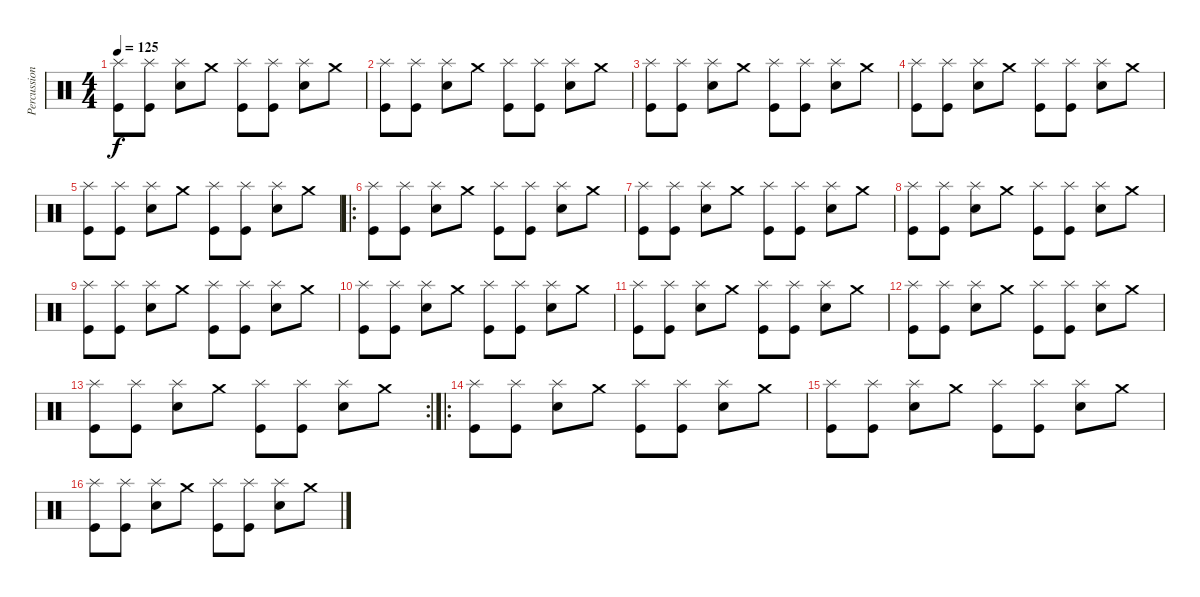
\track ("Percussions" "Percussion") {instrument percussion}
\staff {score}
\articulation defaults
\ts (4 4)
\tempo 125
\clef neutral
\ks c
("Kick (hit)" "Splash (hit)").8{dy f} ("Kick (hit)" "Splash (hit)").8 ("Electric Snare (hit)" "Splash (hit)").8 "Crash medium (hit)".8 ("Kick (hit)" "Splash (hit)").8 ("Kick (hit)" "Splash (hit)").8 ("Electric Snare (hit)" "Splash (hit)").8 "Crash medium (hit)".8 |
("Kick (hit)" "Splash (hit)").8 ("Kick (hit)" "Splash (hit)").8 ("Electric Snare (hit)" "Splash (hit)").8 "Crash medium (hit)".8 ("Kick (hit)" "Splash (hit)").8 ("Kick (hit)" "Splash (hit)").8 ("Electric Snare (hit)" "Splash (hit)").8 "Crash medium (hit)".8 |
("Kick (hit)" "Splash (hit)").8 ("Kick (hit)" "Splash (hit)").8 ("Electric Snare (hit)" "Splash (hit)").8 "Crash medium (hit)".8 ("Kick (hit)" "Splash (hit)").8 ("Kick (hit)" "Splash (hit)").8 ("Electric Snare (hit)" "Splash (hit)").8 "Crash medium (hit)".8 |
("Kick (hit)" "Splash (hit)").8 ("Kick (hit)" "Splash (hit)").8 ("Electric Snare (hit)" "Splash (hit)").8 "Crash medium (hit)".8 ("Kick (hit)" "Splash (hit)").8 ("Kick (hit)" "Splash (hit)").8 ("Electric Snare (hit)" "Splash (hit)").8 "Crash medium (hit)".8 |
("Kick (hit)" "Splash (hit)").8 ("Kick (hit)" "Splash (hit)").8 ("Electric Snare (hit)" "Splash (hit)").8 "Crash medium (hit)".8 ("Kick (hit)" "Splash (hit)").8 ("Kick (hit)" "Splash (hit)").8 ("Electric Snare (hit)" "Splash (hit)").8 "Crash medium (hit)".8 |
\ro
("Kick (hit)" "Splash (hit)").8 ("Kick (hit)" "Splash (hit)").8 ("Electric Snare (hit)" "Splash (hit)").8 "Crash medium (hit)".8 ("Kick (hit)" "Splash (hit)").8 ("Kick (hit)" "Splash (hit)").8 ("Electric Snare (hit)" "Splash (hit)").8 "Crash medium (hit)".8 |
("Kick (hit)" "Splash (hit)").8 ("Kick (hit)" "Splash (hit)").8 ("Electric Snare (hit)" "Splash (hit)").8 "Crash medium (hit)".8 ("Kick (hit)" "Splash (hit)").8 ("Kick (hit)" "Splash (hit)").8 ("Electric Snare (hit)" "Splash (hit)").8 "Crash medium (hit)".8 |
("Kick (hit)" "Splash (hit)").8 ("Kick (hit)" "Splash (hit)").8 ("Electric Snare (hit)" "Splash (hit)").8 "Crash medium (hit)".8 ("Kick (hit)" "Splash (hit)").8 ("Kick (hit)" "Splash (hit)").8 ("Electric Snare (hit)" "Splash (hit)").8 "Crash medium (hit)".8 |
("Kick (hit)" "Splash (hit)").8 ("Kick (hit)" "Splash (hit)").8 ("Electric Snare (hit)" "Splash (hit)").8 "Crash medium (hit)".8 ("Kick (hit)" "Splash (hit)").8 ("Kick (hit)" "Splash (hit)").8 ("Electric Snare (hit)" "Splash (hit)").8 "Crash medium (hit)".8 |
("Kick (hit)" "Splash (hit)").8 ("Kick (hit)" "Splash (hit)").8 ("Electric Snare (hit)" "Splash (hit)").8 "Crash medium (hit)".8 ("Kick (hit)" "Splash (hit)").8 ("Kick (hit)" "Splash (hit)").8 ("Electric Snare (hit)" "Splash (hit)").8 "Crash medium (hit)".8 |
("Kick (hit)" "Splash (hit)").8 ("Kick (hit)" "Splash (hit)").8 ("Electric Snare (hit)" "Splash (hit)").8 "Crash medium (hit)".8 ("Kick (hit)" "Splash (hit)").8 ("Kick (hit)" "Splash (hit)").8 ("Electric Snare (hit)" "Splash (hit)").8 "Crash medium (hit)".8 |
("Kick (hit)" "Splash (hit)").8 ("Kick (hit)" "Splash (hit)").8 ("Electric Snare (hit)" "Splash (hit)").8 "Crash medium (hit)".8 ("Kick (hit)" "Splash (hit)").8 ("Kick (hit)" "Splash (hit)").8 ("Electric Snare (hit)" "Splash (hit)").8 "Crash medium (hit)".8 |
\rc 2
("Kick (hit)" "Splash (hit)").8 ("Kick (hit)" "Splash (hit)").8 ("Electric Snare (hit)" "Splash (hit)").8 "Crash medium (hit)".8 ("Kick (hit)" "Splash (hit)").8 ("Kick (hit)" "Splash (hit)").8 ("Electric Snare (hit)" "Splash (hit)").8 "Crash medium (hit)".8 |
\ro
("Kick (hit)" "Splash (hit)").8 ("Kick (hit)" "Splash (hit)").8 ("Electric Snare (hit)" "Splash (hit)").8 "Crash medium (hit)".8 ("Kick (hit)" "Splash (hit)").8 ("Kick (hit)" "Splash (hit)").8 ("Electric Snare (hit)" "Splash (hit)").8 "Crash medium (hit)".8 |
("Kick (hit)" "Splash (hit)").8 ("Kick (hit)" "Splash (hit)").8 ("Electric Snare (hit)" "Splash (hit)").8 "Crash medium (hit)".8 ("Kick (hit)" "Splash (hit)").8 ("Kick (hit)" "Splash (hit)").8 ("Electric Snare (hit)" "Splash (hit)").8 "Crash medium (hit)".8 |
("Kick (hit)" "Splash (hit)").8 ("Kick (hit)" "Splash (hit)").8 ("Electric Snare (hit)" "Splash (hit)").8 "Crash medium (hit)".8 ("Kick (hit)" "Splash (hit)").8 ("Kick (hit)" "Splash (hit)").8 ("Electric Snare (hit)" "Splash (hit)").8 "Crash medium (hit)".8
